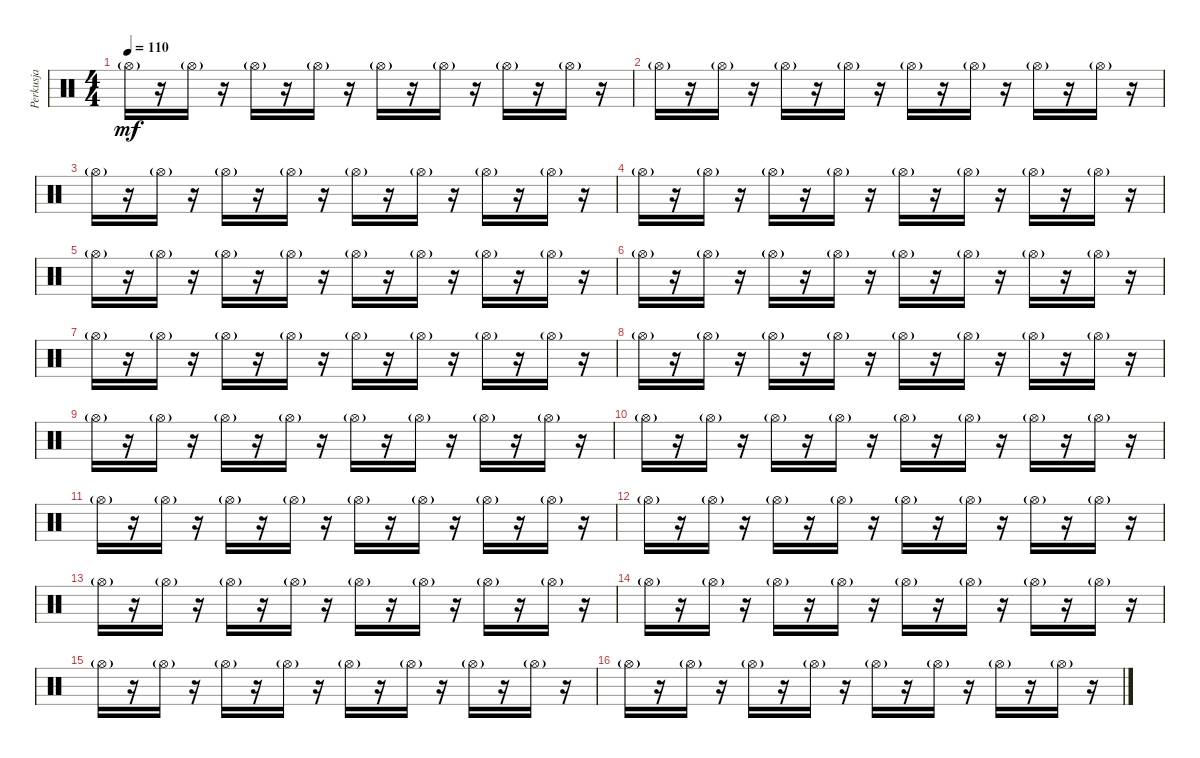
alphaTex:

\track ("Perkusja" "Perkusja") {instrument percussion}
\staff {score}
\articulation defaults
\ts (4 4)
\tempo 110
\clef neutral
\ks c "Hi-Hat (open)"{g}.16{dy mf volume 16}
r.16 "Hi-Hat (open)"{g}.16 r.16 "Hi-Hat (open)"{g}.16 r.16 "Hi-Hat (open)"{g}.16 r.16 "Hi-Hat (open)"{g}.16 r.16 "Hi-Hat (open)"{g}.16 r.16 "Hi-Hat (open)"{g}.16 r.16 "Hi-Hat (open)"{g}.16 r.16 |
"Hi-Hat (open)"{g}.16 r.16 "Hi-Hat (open)"{g}.16 r.16 "Hi-Hat (open)"{g}.16 r.16 "Hi-Hat (open)"{g}.16 r.16 "Hi-Hat (open)"{g}.16 r.16 "Hi-Hat (open)"{g}.16 r.16 "Hi-Hat (open)"{g}.16 r.16 "Hi-Hat (open)"{g}.16 r.16 |
"Hi-Hat (open)"{g}.16 r.16 "Hi-Hat (open)"{g}.16 r.16 "Hi-Hat (open)"{g}.16 r.16 "Hi-Hat (open)"{g}.16 r.16 "Hi-Hat (open)"{g}.16 r.16 "Hi-Hat (open)"{g}.16 r.16 "Hi-Hat (open)"{g}.16 r.16 "Hi-Hat (open)"{g}.16 r.16 |
"Hi-Hat (open)"{g}.16 r.16 "Hi-Hat (open)"{g}.16 r.16 "Hi-Hat (open)"{g}.16 r.16 "Hi-Hat (open)"{g}.16 r.16 "Hi-Hat (open)"{g}.16 r.16 "Hi-Hat (open)"{g}.16 r.16 "Hi-Hat (open)"{g}.16 r.16 "Hi-Hat (open)"{g}.16 r.16 |
"Hi-Hat (open)"{g}.16 r.16 "Hi-Hat (open)"{g}.16 r.16 "Hi-Hat (open)"{g}.16 r.16 "Hi-Hat (open)"{g}.16 r.16 "Hi-Hat (open)"{g}.16 r.16 "Hi-Hat (open)"{g}.16 r.16 "Hi-Hat (open)"{g}.16 r.16 "Hi-Hat (open)"{g}.16 r.16 |
"Hi-Hat (open)"{g}.16 r.16 "Hi-Hat (open)"{g}.16 r.16 "Hi-Hat (open)"{g}.16 r.16 "Hi-Hat (open)"{g}.16 r.16 "Hi-Hat (open)"{g}.16 r.16 "Hi-Hat (open)"{g}.16 r.16 "Hi-Hat (open)"{g}.16 r.16 "Hi-Hat (open)"{g}.16 r.16 |
"Hi-Hat (open)"{g}.16 r.16 "Hi-Hat (open)"{g}.16 r.16 "Hi-Hat (open)"{g}.16 r.16 "Hi-Hat (open)"{g}.16 r.16 "Hi-Hat (open)"{g}.16 r.16 "Hi-Hat (open)"{g}.16 r.16 "Hi-Hat (open)"{g}.16 r.16 "Hi-Hat (open)"{g}.16 r.16 |
"Hi-Hat (open)"{g}.16 r.16 "Hi-Hat (open)"{g}.16 r.16 "Hi-Hat (open)"{g}.16 r.16 "Hi-Hat (open)"{g}.16 r.16 "Hi-Hat (open)"{g}.16 r.16 "Hi-Hat (open)"{g}.16 r.16 "Hi-Hat (open)"{g}.16 r.16 "Hi-Hat (open)"{g}.16 r.16 |
"Hi-Hat (open)"{g}.16 r.16 "Hi-Hat (open)"{g}.16 r.16 "Hi-Hat (open)"{g}.16 r.16 "Hi-Hat (open)"{g}.16 r.16 "Hi-Hat (open)"{g}.16 r.16 "Hi-Hat (open)"{g}.16 r.16 "Hi-Hat (open)"{g}.16 r.16 "Hi-Hat (open)"{g}.16 r.16 |
"Hi-Hat (open)"{g}.16 r.16 "Hi-Hat (open)"{g}.16 r.16 "Hi-Hat (open)"{g}.16 r.16 "Hi-Hat (open)"{g}.16 r.16 "Hi-Hat (open)"{g}.16 r.16 "Hi-Hat (open)"{g}.16 r.16 "Hi-Hat (open)"{g}.16 r.16 "Hi-Hat (open)"{g}.16 r.16 |
"Hi-Hat (open)"{g}.16 r.16 "Hi-Hat (open)"{g}.16 r.16 "Hi-Hat (open)"{g}.16 r.16 "Hi-Hat (open)"{g}.16 r.16 "Hi-Hat (open)"{g}.16 r.16 "Hi-Hat (open)"{g}.16 r.16 "Hi-Hat (open)"{g}.16 r.16 "Hi-Hat (open)"{g}.16 r.16 |
"Hi-Hat (open)"{g}.16 r.16 "Hi-Hat (open)"{g}.16 r.16 "Hi-Hat (open)"{g}.16 r.16 "Hi-Hat (open)"{g}.16 r.16 "Hi-Hat (open)"{g}.16 r.16 "Hi-Hat (open)"{g}.16 r.16 "Hi-Hat (open)"{g}.16 r.16 "Hi-Hat (open)"{g}.16 r.16 |
"Hi-Hat (open)"{g}.16 r.16 "Hi-Hat (open)"{g}.16 r.16 "Hi-Hat (open)"{g}.16 r.16 "Hi-Hat (open)"{g}.16 r.16 "Hi-Hat (open)"{g}.16 r.16 "Hi-Hat (open)"{g}.16 r.16 "Hi-Hat (open)"{g}.16 r.16 "Hi-Hat (open)"{g}.16 r.16 |
"Hi-Hat (open)"{g}.16 r.16 "Hi-Hat (open)"{g}.16 r.16 "Hi-Hat (open)"{g}.16 r.16 "Hi-Hat (open)"{g}.16 r.16 "Hi-Hat (open)"{g}.16 r.16 "Hi-Hat (open)"{g}.16 r.16 "Hi-Hat (open)"{g}.16 r.16 "Hi-Hat (open)"{g}.16 r.16 |
"Hi-Hat (open)"{g}.16 r.16 "Hi-Hat (open)"{g}.16 r.16 "Hi-Hat (open)"{g}.16 r.16 "Hi-Hat (open)"{g}.16 r.16 "Hi-Hat (open)"{g}.16 r.16 "Hi-Hat (open)"{g}.16 r.16 "Hi-Hat (open)"{g}.16 r.16 "Hi-Hat (open)"{g}.16 r.16 |
"Hi-Hat (open)"{g}.16 r.16 "Hi-Hat (open)"{g}.16 r.16 "Hi-Hat (open)"{g}.16 r.16 "Hi-Hat (open)"{g}.16 r.16 "Hi-Hat (open)"{g}.16 r.16 "Hi-Hat (open)"{g}.16 r.16 "Hi-Hat (open)"{g}.16 r.16 "Hi-Hat (open)"{g}.16 r.16
